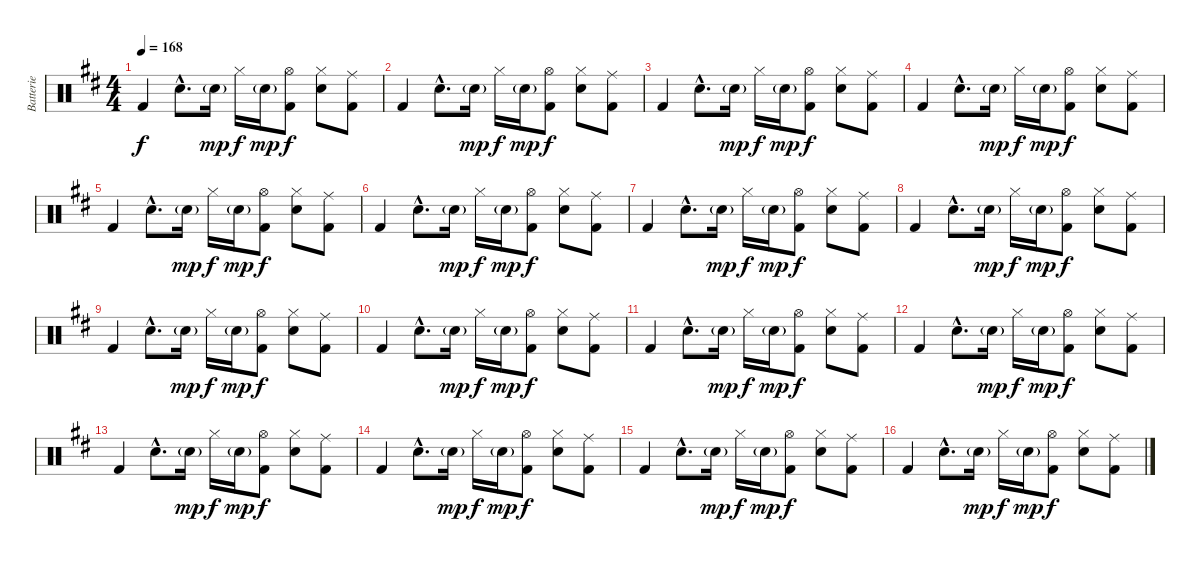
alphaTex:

\track ("Batterie" "Batterie") {instrument percussion}
\staff {score}
\articulation defaults
\ts (4 4)
\tempo 168
\clef neutral
\ks d "Kick (hit) 2".4{dy f} "Snare (hit) 2"{hac}.8{d} "Snare (hit) 2"{g}.16{dy mp} "Hi-Hat (closed)".16{dy f} "Snare (hit) 2"{g}.16{dy mp}
("Hi-Hat (open)" "Kick (hit) 2").8{dy f} ("Hi-Hat (closed)" "Snare (hit) 2").8 ("Ride (middle)" "Kick (hit) 2").8 |
"Kick (hit) 2".4 "Snare (hit) 2"{hac}.8{d} "Snare (hit) 2"{g}.16{dy mp} "Hi-Hat (closed)".16{dy f} "Snare (hit) 2"{g}.16{dy mp} ("Hi-Hat (open)" "Kick (hit) 2").8{dy f} ("Hi-Hat (closed)" "Snare (hit) 2").8 ("Ride (middle)" "Kick (hit) 2").8 |
"Kick (hit) 2".4 "Snare (hit) 2"{hac}.8{d} "Snare (hit) 2"{g}.16{dy mp} "Hi-Hat (closed)".16{dy f} "Snare (hit) 2"{g}.16{dy mp} ("Hi-Hat (open)" "Kick (hit) 2").8{dy f} ("Hi-Hat (closed)" "Snare (hit) 2").8 ("Ride (middle)" "Kick (hit) 2").8 |
"Kick (hit) 2".4 "Snare (hit) 2"{hac}.8{d} "Snare (hit) 2"{g}.16{dy mp} "Hi-Hat (closed)".16{dy f} "Snare (hit) 2"{g}.16{dy mp} ("Hi-Hat (open)" "Kick (hit) 2").8{dy f} ("Hi-Hat (closed)" "Snare (hit) 2").8 ("Ride (middle)" "Kick (hit) 2").8 |
"Kick (hit) 2".4 "Snare (hit) 2"{hac}.8{d} "Snare (hit) 2"{g}.16{dy mp} "Hi-Hat (closed)".16{dy f} "Snare (hit) 2"{g}.16{dy mp} ("Hi-Hat (open)" "Kick (hit) 2").8{dy f} ("Hi-Hat (closed)" "Snare (hit) 2").8 ("Ride (middle)" "Kick (hit) 2").8 |
"Kick (hit) 2".4 "Snare (hit) 2"{hac}.8{d} "Snare (hit) 2"{g}.16{dy mp} "Hi-Hat (closed)".16{dy f} "Snare (hit) 2"{g}.16{dy mp} ("Hi-Hat (open)" "Kick (hit) 2").8{dy f} ("Hi-Hat (closed)" "Snare (hit) 2").8 ("Ride (middle)" "Kick (hit) 2").8 |
"Kick (hit) 2".4 "Snare (hit) 2"{hac}.8{d} "Snare (hit) 2"{g}.16{dy mp} "Hi-Hat (closed)".16{dy f} "Snare (hit) 2"{g}.16{dy mp} ("Hi-Hat (open)" "Kick (hit) 2").8{dy f} ("Hi-Hat (closed)" "Snare (hit) 2").8 ("Ride (middle)" "Kick (hit) 2").8 |
"Kick (hit) 2".4 "Snare (hit) 2"{hac}.8{d} "Snare (hit) 2"{g}.16{dy mp} "Hi-Hat (closed)".16{dy f} "Snare (hit) 2"{g}.16{dy mp} ("Hi-Hat (open)" "Kick (hit) 2").8{dy f} ("Hi-Hat (closed)" "Snare (hit) 2").8 ("Ride (middle)" "Kick (hit) 2").8 |
"Kick (hit) 2".4 "Snare (hit) 2"{hac}.8{d} "Snare (hit) 2"{g}.16{dy mp} "Hi-Hat (closed)".16{dy f} "Snare (hit) 2"{g}.16{dy mp} ("Hi-Hat (open)" "Kick (hit) 2").8{dy f} ("Hi-Hat (closed)" "Snare (hit) 2").8 ("Ride (middle)" "Kick (hit) 2").8 |
"Kick (hit) 2".4 "Snare (hit) 2"{hac}.8{d} "Snare (hit) 2"{g}.16{dy mp} "Hi-Hat (closed)".16{dy f} "Snare (hit) 2"{g}.16{dy mp} ("Hi-Hat (open)" "Kick (hit) 2").8{dy f} ("Hi-Hat (closed)" "Snare (hit) 2").8 ("Ride (middle)" "Kick (hit) 2").8 |
"Kick (hit) 2".4 "Snare (hit) 2"{hac}.8{d} "Snare (hit) 2"{g}.16{dy mp} "Hi-Hat (closed)".16{dy f} "Snare (hit) 2"{g}.16{dy mp} ("Hi-Hat (open)" "Kick (hit) 2").8{dy f} ("Hi-Hat (closed)" "Snare (hit) 2").8 ("Ride (middle)" "Kick (hit) 2").8 |
"Kick (hit) 2".4 "Snare (hit) 2"{hac}.8{d} "Snare (hit) 2"{g}.16{dy mp} "Hi-Hat (closed)".16{dy f} "Snare (hit) 2"{g}.16{dy mp} ("Hi-Hat (open)" "Kick (hit) 2").8{dy f} ("Hi-Hat (closed)" "Snare (hit) 2").8 ("Ride (middle)" "Kick (hit) 2").8 |
"Kick (hit) 2".4 "Snare (hit) 2"{hac}.8{d} "Snare (hit) 2"{g}.16{dy mp} "Hi-Hat (closed)".16{dy f} "Snare (hit) 2"{g}.16{dy mp} ("Hi-Hat (open)" "Kick (hit) 2").8{dy f} ("Hi-Hat (closed)" "Snare (hit) 2").8 ("Ride (middle)" "Kick (hit) 2").8 |
"Kick (hit) 2".4 "Snare (hit) 2"{hac}.8{d} "Snare (hit) 2"{g}.16{dy mp} "Hi-Hat (closed)".16{dy f} "Snare (hit) 2"{g}.16{dy mp} ("Hi-Hat (open)" "Kick (hit) 2").8{dy f} ("Hi-Hat (closed)" "Snare (hit) 2").8 ("Ride (middle)" "Kick (hit) 2").8 |
"Kick (hit) 2".4 "Snare (hit) 2"{hac}.8{d} "Snare (hit) 2"{g}.16{dy mp} "Hi-Hat (closed)".16{dy f} "Snare (hit) 2"{g}.16{dy mp} ("Hi-Hat (open)" "Kick (hit) 2").8{dy f} ("Hi-Hat (closed)" "Snare (hit) 2").8 ("Ride (middle)" "Kick (hit) 2").8 |
"Kick (hit) 2".4 "Snare (hit) 2"{hac}.8{d} "Snare (hit) 2"{g}.16{dy mp} "Hi-Hat (closed)".16{dy f} "Snare (hit) 2"{g}.16{dy mp} ("Hi-Hat (open)" "Kick (hit) 2").8{dy f} ("Hi-Hat (closed)" "Snare (hit) 2").8 ("Ride (middle)" "Kick (hit) 2").8
